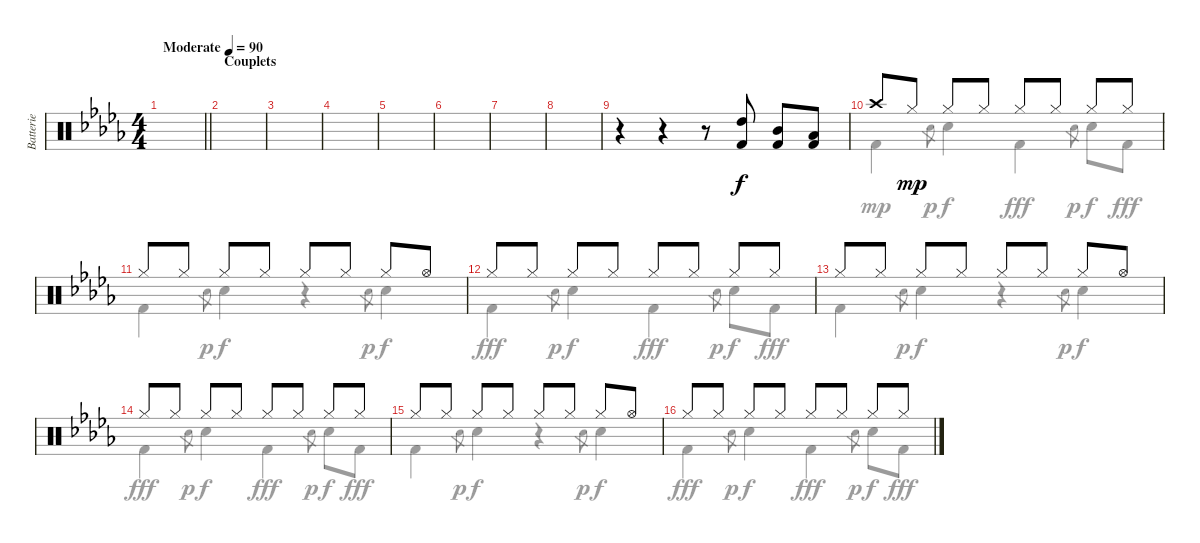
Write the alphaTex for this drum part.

\track ("Batterie" "Batterie") {instrument percussion}
\staff {score}
\articulation defaults
\voice
\ts (4 4)
\tempo (90 "Moderate")
\clef neutral
\barLineRight lightlight
\ks db
|
\section ("" "Couplets")
|
|
|
|
|
|
|
r.4 r.4 r.8 ("Kick (hit) 2" "High Tom (hit)").8 ("Kick (hit) 2" "Mid Tom (hit)").8 ("Kick (hit) 2" "Low Tom (hit)").8 |
"Crash high (hit)".8{dy f} "Hi-Hat (closed)".8{dy mp} "Hi-Hat (closed)".8 "Hi-Hat (closed)".8 "Hi-Hat (closed)".8 "Hi-Hat (closed)".8 "Hi-Hat (closed)".8 "Hi-Hat (closed)".8 |
"Hi-Hat (closed)".8 "Hi-Hat (closed)".8 "Hi-Hat (closed)".8 "Hi-Hat (closed)".8 "Hi-Hat (closed)".8 "Hi-Hat (closed)".8 "Hi-Hat (closed)".8 "Hi-Hat (open)".8 |
"Hi-Hat (closed)".8 "Hi-Hat (closed)".8 "Hi-Hat (closed)".8 "Hi-Hat (closed)".8 "Hi-Hat (closed)".8 "Hi-Hat (closed)".8 "Hi-Hat (closed)".8 "Hi-Hat (closed)".8 |
"Hi-Hat (closed)".8 "Hi-Hat (closed)".8 "Hi-Hat (closed)".8 "Hi-Hat (closed)".8 "Hi-Hat (closed)".8 "Hi-Hat (closed)".8 "Hi-Hat (closed)".8 "Hi-Hat (open)".8 |
"Hi-Hat (closed)".8 "Hi-Hat (closed)".8 "Hi-Hat (closed)".8 "Hi-Hat (closed)".8 "Hi-Hat (closed)".8 "Hi-Hat (closed)".8 "Hi-Hat (closed)".8 "Hi-Hat (closed)".8 |
"Hi-Hat (closed)".8 "Hi-Hat (closed)".8 "Hi-Hat (closed)".8 "Hi-Hat (closed)".8 "Hi-Hat (closed)".8 "Hi-Hat (closed)".8 "Hi-Hat (closed)".8 "Hi-Hat (open)".8 |
"Hi-Hat (closed)".8 "Hi-Hat (closed)".8 "Hi-Hat (closed)".8 "Hi-Hat (closed)".8 "Hi-Hat (closed)".8 "Hi-Hat (closed)".8 "Hi-Hat (closed)".8 "Hi-Hat (closed)".8
\voice
\clef neutral
\ottava regular
\simile none
\barLineRight lightlight
\ks db
|
|
|
|
|
|
|
|
|
"Kick (hit) 2".4 "Hand Clap (hit)".8{gr dy p} "Hand Clap (hit)".4{dy f} "Kick (hit) 2".4{dy fff} "Hand Clap (hit)".8{gr dy p} "Hand Clap (hit)".8{dy f} "Kick (hit) 2".8{dy fff} |
"Kick (hit) 2".4 "Hand Clap (hit)".8{gr dy p} "Hand Clap (hit)".4{dy f} r.4 "Hand Clap (hit)".8{gr dy p} "Hand Clap (hit)".4{dy f} |
"Kick (hit) 2".4{dy fff} "Hand Clap (hit)".8{gr dy p} "Hand Clap (hit)".4{dy f} "Kick (hit) 2".4{dy fff} "Hand Clap (hit)".8{gr dy p} "Hand Clap (hit)".8{dy f} "Kick (hit) 2".8{dy fff} |
"Kick (hit) 2".4 "Hand Clap (hit)".8{gr dy p} "Hand Clap (hit)".4{dy f} r.4 "Hand Clap (hit)".8{gr dy p} "Hand Clap (hit)".4{dy f} |
"Kick (hit) 2".4{dy fff} "Hand Clap (hit)".8{gr dy p} "Hand Clap (hit)".4{dy f} "Kick (hit) 2".4{dy fff} "Hand Clap (hit)".8{gr dy p} "Hand Clap (hit)".8{dy f} "Kick (hit) 2".8{dy fff} |
"Kick (hit) 2".4 "Hand Clap (hit)".8{gr dy p} "Hand Clap (hit)".4{dy f} r.4 "Hand Clap (hit)".8{gr dy p} "Hand Clap (hit)".4{dy f} |
"Kick (hit) 2".4{dy fff} "Hand Clap (hit)".8{gr dy p} "Hand Clap (hit)".4{dy f} "Kick (hit) 2".4{dy fff} "Hand Clap (hit)".8{gr dy p} "Hand Clap (hit)".8{dy f} "Kick (hit) 2".8{dy fff}
